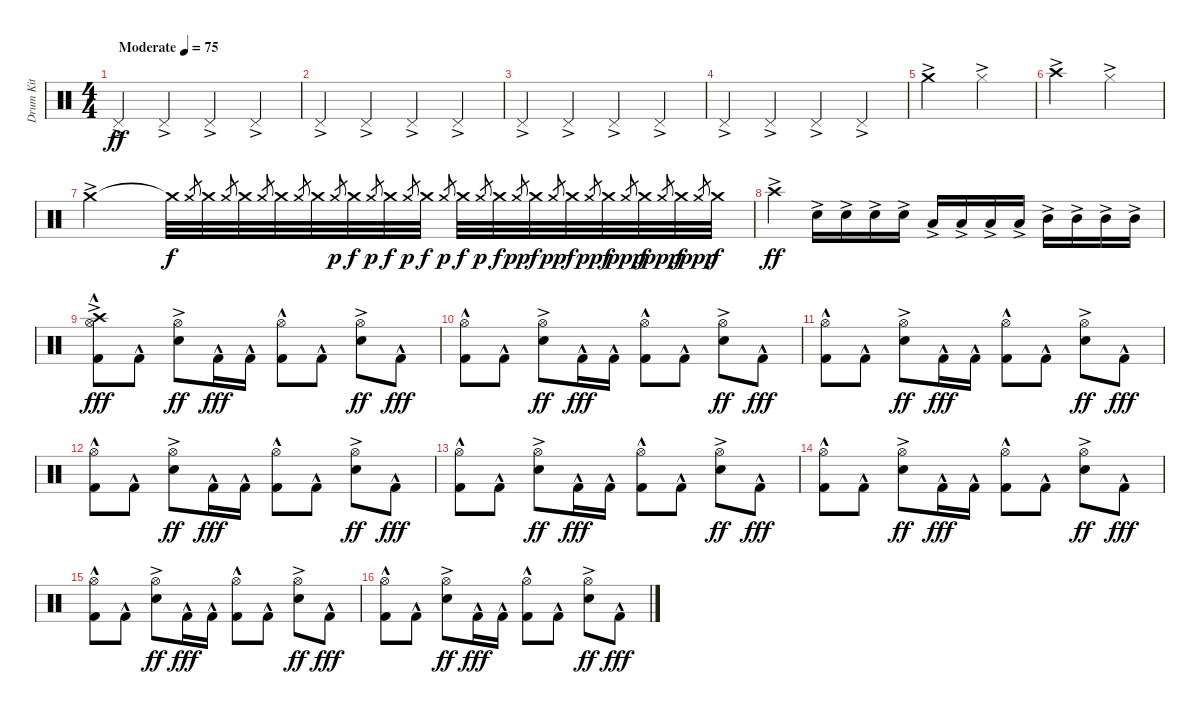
\track ("Drum Kit" "Drum Kit") {instrument percussion}
\staff {score}
\articulation defaults
\ts (4 4)
\tempo (75 "Moderate")
\clef neutral
\ks c "Pedal Hi-Hat (hit)"{ac}.4{dy ff} "Pedal Hi-Hat (hit)"{ac}.4 "Pedal Hi-Hat (hit)"{ac}.4 "Pedal Hi-Hat (hit)"{ac}.4
|
"Pedal Hi-Hat (hit)"{ac}.4 "Pedal Hi-Hat (hit)"{ac}.4 "Pedal Hi-Hat (hit)"{ac}.4 "Pedal Hi-Hat (hit)"{ac}.4 |
"Pedal Hi-Hat (hit)"{ac}.4 "Pedal Hi-Hat (hit)"{ac}.4 "Pedal Hi-Hat (hit)"{ac}.4 "Pedal Hi-Hat (hit)"{ac}.4 |
"Pedal Hi-Hat (hit)"{ac}.4 "Pedal Hi-Hat (hit)"{ac}.4 "Pedal Hi-Hat (hit)"{ac}.4 "Pedal Hi-Hat (hit)"{ac}.4 |
"Crash medium (hit)"{ac}.2 "Hi-Hat (closed)"{ac}.2 |
"Crash high (hit)"{ac}.2 "Hi-Hat (closed)"{ac}.2 |
"Crash medium (hit)"{ac}.2 "Crash medium (hit)"{t}.32{dy f} "Crash medium (hit)".8{gr} "Crash medium (hit)".32 "Crash medium (hit)".8{gr} "Crash medium (hit)".32 "Crash medium (hit)".8{gr} "Crash medium (hit)".32 "Crash medium (hit)".8{gr} "Crash medium (hit)".32 "Crash medium (hit)".8{gr dy p} "Crash medium (hit)".32{dy f} "Crash medium (hit)".8{gr dy p} "Crash medium (hit)".32{dy f} "Crash medium (hit)".8{gr dy p} "Crash medium (hit)".32{dy f} "Crash medium (hit)".8{gr dy p} "Crash medium (hit)".32{dy f} "Crash medium (hit)".8{gr dy p} "Crash medium (hit)".32{dy f} "Crash medium (hit)".8{gr dy pp} "Crash medium (hit)".32{dy f} "Crash medium (hit)".8{gr dy pp} "Crash medium (hit)".32{dy f} "Crash medium (hit)".8{gr dy pp} "Crash medium (hit)".32{dy f} "Crash medium (hit)".8{gr dy ppp} "Crash medium (hit)".32{dy f} "Crash medium (hit)".8{gr dy ppp} "Crash medium (hit)".32{dy f} "Crash medium (hit)".8{gr dy ppp} "Crash medium (hit)".32{dy f} |
"Crash high (hit)"{ac}.4{dy ff} "Snare (hit) 2"{ac}.16 "Snare (hit) 2"{ac}.16 "Snare (hit) 2"{ac}.16 "Snare (hit) 2"{ac}.16 "Low Tom (hit)"{ac}.16 "Low Tom (hit)"{ac}.16 "Low Tom (hit)"{ac}.16 "Low Tom (hit)"{ac}.16 "Mid Tom (hit)"{ac}.16 "Mid Tom (hit)"{ac}.16 "Mid Tom (hit)"{ac}.16 "Mid Tom (hit)"{ac}.16 |
("Crash high (hit)"{ac} "Hi-Hat (open)" "Kick (hit) 2"{hac}).8{dy fff} "Kick (hit) 2"{hac}.8 ("Hi-Hat (open)" "Snare (hit) 2"{ac}).8{dy ff} "Kick (hit) 2"{hac}.16{dy fff} "Kick (hit) 2"{hac}.16 ("Hi-Hat (open)" "Kick (hit) 2"{hac}).8 "Kick (hit) 2"{hac}.8 ("Hi-Hat (open)" "Snare (hit) 2"{ac}).8{dy ff} "Kick (hit) 2"{hac}.8{dy fff} |
("Hi-Hat (open)" "Kick (hit) 2"{hac}).8 "Kick (hit) 2"{hac}.8 ("Hi-Hat (open)" "Snare (hit) 2"{ac}).8{dy ff} "Kick (hit) 2"{hac}.16{dy fff} "Kick (hit) 2"{hac}.16 ("Hi-Hat (open)" "Kick (hit) 2"{hac}).8 "Kick (hit) 2"{hac}.8 ("Hi-Hat (open)" "Snare (hit) 2"{ac}).8{dy ff} "Kick (hit) 2"{hac}.8{dy fff} |
("Hi-Hat (open)" "Kick (hit) 2"{hac}).8 "Kick (hit) 2"{hac}.8 ("Hi-Hat (open)" "Snare (hit) 2"{ac}).8{dy ff} "Kick (hit) 2"{hac}.16{dy fff} "Kick (hit) 2"{hac}.16 ("Hi-Hat (open)" "Kick (hit) 2"{hac}).8 "Kick (hit) 2"{hac}.8 ("Hi-Hat (open)" "Snare (hit) 2"{ac}).8{dy ff} "Kick (hit) 2"{hac}.8{dy fff} |
("Hi-Hat (open)" "Kick (hit) 2"{hac}).8 "Kick (hit) 2"{hac}.8 ("Hi-Hat (open)" "Snare (hit) 2"{ac}).8{dy ff} "Kick (hit) 2"{hac}.16{dy fff} "Kick (hit) 2"{hac}.16 ("Hi-Hat (open)" "Kick (hit) 2"{hac}).8 "Kick (hit) 2"{hac}.8 ("Hi-Hat (open)" "Snare (hit) 2"{ac}).8{dy ff} "Kick (hit) 2"{hac}.8{dy fff} |
("Hi-Hat (open)" "Kick (hit) 2"{hac}).8 "Kick (hit) 2"{hac}.8 ("Hi-Hat (open)" "Snare (hit) 2"{ac}).8{dy ff} "Kick (hit) 2"{hac}.16{dy fff} "Kick (hit) 2"{hac}.16 ("Hi-Hat (open)" "Kick (hit) 2"{hac}).8 "Kick (hit) 2"{hac}.8 ("Hi-Hat (open)" "Snare (hit) 2"{ac}).8{dy ff} "Kick (hit) 2"{hac}.8{dy fff} |
("Hi-Hat (open)" "Kick (hit) 2"{hac}).8 "Kick (hit) 2"{hac}.8 ("Hi-Hat (open)" "Snare (hit) 2"{ac}).8{dy ff} "Kick (hit) 2"{hac}.16{dy fff} "Kick (hit) 2"{hac}.16 ("Hi-Hat (open)" "Kick (hit) 2"{hac}).8 "Kick (hit) 2"{hac}.8 ("Hi-Hat (open)" "Snare (hit) 2"{ac}).8{dy ff} "Kick (hit) 2"{hac}.8{dy fff} |
("Hi-Hat (open)" "Kick (hit) 2"{hac}).8 "Kick (hit) 2"{hac}.8 ("Hi-Hat (open)" "Snare (hit) 2"{ac}).8{dy ff} "Kick (hit) 2"{hac}.16{dy fff} "Kick (hit) 2"{hac}.16 ("Hi-Hat (open)" "Kick (hit) 2"{hac}).8 "Kick (hit) 2"{hac}.8 ("Hi-Hat (open)" "Snare (hit) 2"{ac}).8{dy ff} "Kick (hit) 2"{hac}.8{dy fff} |
("Hi-Hat (open)" "Kick (hit) 2"{hac}).8 "Kick (hit) 2"{hac}.8 ("Hi-Hat (open)" "Snare (hit) 2"{ac}).8{dy ff} "Kick (hit) 2"{hac}.16{dy fff} "Kick (hit) 2"{hac}.16 ("Hi-Hat (open)" "Kick (hit) 2"{hac}).8 "Kick (hit) 2"{hac}.8 ("Hi-Hat (open)" "Snare (hit) 2"{ac}).8{dy ff} "Kick (hit) 2"{hac}.8{dy fff}
